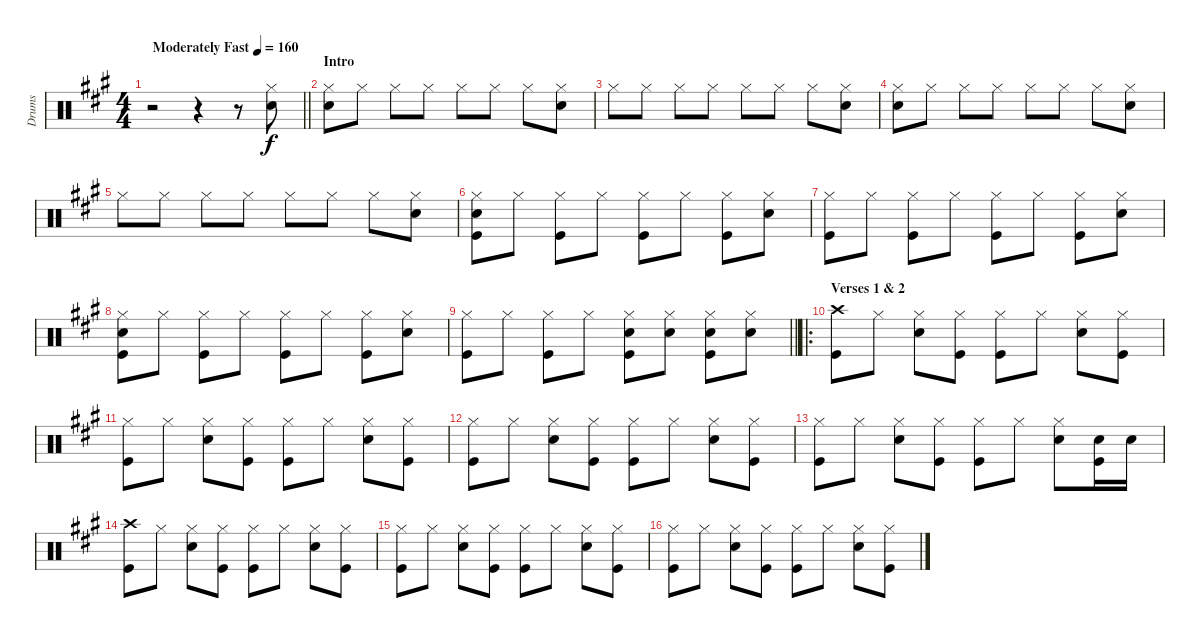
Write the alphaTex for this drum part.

\track ("Drums" "Drums") {instrument percussion}
\staff {score}
\articulation defaults
\ts (4 4)
\tempo (160 "Moderately Fast")
\clef neutral
\barLineRight lightlight
\ks a
r.2{dy f} r.4 r.8 ("Snare (hit) 2" "Hi-Hat (closed)").8 |
\section ("" "Intro")
("Snare (hit) 2" "Hi-Hat (closed)").8 "Hi-Hat (closed)".8 "Hi-Hat (closed)".8 "Hi-Hat (closed)".8 "Hi-Hat (closed)".8 "Hi-Hat (closed)".8 "Hi-Hat (closed)".8 ("Hi-Hat (closed)" "Snare (hit) 2").8 |
"Hi-Hat (closed)".8 "Hi-Hat (closed)".8 "Hi-Hat (closed)".8 "Hi-Hat (closed)".8 "Hi-Hat (closed)".8 "Hi-Hat (closed)".8 "Hi-Hat (closed)".8 ("Hi-Hat (closed)" "Snare (hit) 2").8 |
("Snare (hit) 2" "Hi-Hat (closed)").8 "Hi-Hat (closed)".8 "Hi-Hat (closed)".8 "Hi-Hat (closed)".8 "Hi-Hat (closed)".8 "Hi-Hat (closed)".8 "Hi-Hat (closed)".8 ("Hi-Hat (closed)" "Snare (hit) 2").8 |
"Hi-Hat (closed)".8 "Hi-Hat (closed)".8 "Hi-Hat (closed)".8 "Hi-Hat (closed)".8 "Hi-Hat (closed)".8 "Hi-Hat (closed)".8 "Hi-Hat (closed)".8 ("Hi-Hat (closed)" "Snare (hit) 2").8 |
("Snare (hit) 2" "Hi-Hat (closed)" "Kick (hit)").8 "Hi-Hat (closed)".8 ("Hi-Hat (closed)" "Kick (hit)").8 "Hi-Hat (closed)".8 ("Hi-Hat (closed)" "Kick (hit)").8 "Hi-Hat (closed)".8 ("Hi-Hat (closed)" "Kick (hit)").8 ("Hi-Hat (closed)" "Snare (hit) 2").8 |
("Kick (hit)" "Hi-Hat (closed)").8 "Hi-Hat (closed)".8 ("Hi-Hat (closed)" "Kick (hit)").8 "Hi-Hat (closed)".8 ("Hi-Hat (closed)" "Kick (hit)").8 "Hi-Hat (closed)".8 ("Hi-Hat (closed)" "Kick (hit)").8 ("Hi-Hat (closed)" "Snare (hit) 2").8 |
("Snare (hit) 2" "Hi-Hat (closed)" "Kick (hit)").8 "Hi-Hat (closed)".8 ("Hi-Hat (closed)" "Kick (hit)").8 "Hi-Hat (closed)".8 ("Hi-Hat (closed)" "Kick (hit)").8 "Hi-Hat (closed)".8 ("Hi-Hat (closed)" "Kick (hit)").8 ("Hi-Hat (closed)" "Snare (hit) 2").8 |
\barLineRight lightlight
("Kick (hit)" "Hi-Hat (closed)").8 "Hi-Hat (closed)".8 ("Hi-Hat (closed)" "Kick (hit)").8 "Hi-Hat (closed)".8 ("Hi-Hat (closed)" "Kick (hit)" "Snare (hit) 2").8 ("Hi-Hat (closed)" "Snare (hit) 2").8 ("Hi-Hat (closed)" "Kick (hit)" "Snare (hit) 2").8 ("Hi-Hat (closed)" "Snare (hit) 2").8 |
\ro
\section ("" "Verses 1 & 2")
("Crash high (hit)" "Kick (hit)").8 "Hi-Hat (closed)".8 ("Hi-Hat (closed)" "Snare (hit) 2").8 ("Hi-Hat (closed)" "Kick (hit)").8 ("Hi-Hat (closed)" "Kick (hit)").8 "Hi-Hat (closed)".8 ("Hi-Hat (closed)" "Snare (hit) 2").8 ("Hi-Hat (closed)" "Kick (hit)").8 |
("Hi-Hat (closed)" "Kick (hit)").8 "Hi-Hat (closed)".8 ("Hi-Hat (closed)" "Snare (hit) 2").8 ("Hi-Hat (closed)" "Kick (hit)").8 ("Hi-Hat (closed)" "Kick (hit)").8 "Hi-Hat (closed)".8 ("Hi-Hat (closed)" "Snare (hit) 2").8 ("Hi-Hat (closed)" "Kick (hit)").8 |
("Hi-Hat (closed)" "Kick (hit)").8 "Hi-Hat (closed)".8 ("Hi-Hat (closed)" "Snare (hit) 2").8 ("Hi-Hat (closed)" "Kick (hit)").8 ("Hi-Hat (closed)" "Kick (hit)").8 "Hi-Hat (closed)".8 ("Hi-Hat (closed)" "Snare (hit) 2").8 ("Hi-Hat (closed)" "Kick (hit)").8 |
("Hi-Hat (closed)" "Kick (hit)").8 "Hi-Hat (closed)".8 ("Hi-Hat (closed)" "Snare (hit) 2").8 ("Hi-Hat (closed)" "Kick (hit)").8 ("Hi-Hat (closed)" "Kick (hit)").8 "Hi-Hat (closed)".8 ("Hi-Hat (closed)" "Snare (hit) 2").8 ("Snare (hit) 2" "Kick (hit)").16 "Snare (hit) 2".16 |
("Crash high (hit)" "Kick (hit)").8 "Hi-Hat (closed)".8 ("Hi-Hat (closed)" "Snare (hit) 2").8 ("Hi-Hat (closed)" "Kick (hit)").8 ("Hi-Hat (closed)" "Kick (hit)").8 "Hi-Hat (closed)".8 ("Hi-Hat (closed)" "Snare (hit) 2").8 ("Hi-Hat (closed)" "Kick (hit)").8 |
("Hi-Hat (closed)" "Kick (hit)").8 "Hi-Hat (closed)".8 ("Hi-Hat (closed)" "Snare (hit) 2").8 ("Hi-Hat (closed)" "Kick (hit)").8 ("Hi-Hat (closed)" "Kick (hit)").8 "Hi-Hat (closed)".8 ("Hi-Hat (closed)" "Snare (hit) 2").8 ("Hi-Hat (closed)" "Kick (hit)").8 |
("Hi-Hat (closed)" "Kick (hit)").8 "Hi-Hat (closed)".8 ("Hi-Hat (closed)" "Snare (hit) 2").8 ("Hi-Hat (closed)" "Kick (hit)").8 ("Hi-Hat (closed)" "Kick (hit)").8 "Hi-Hat (closed)".8 ("Hi-Hat (closed)" "Snare (hit) 2").8 ("Hi-Hat (closed)" "Kick (hit)").8
